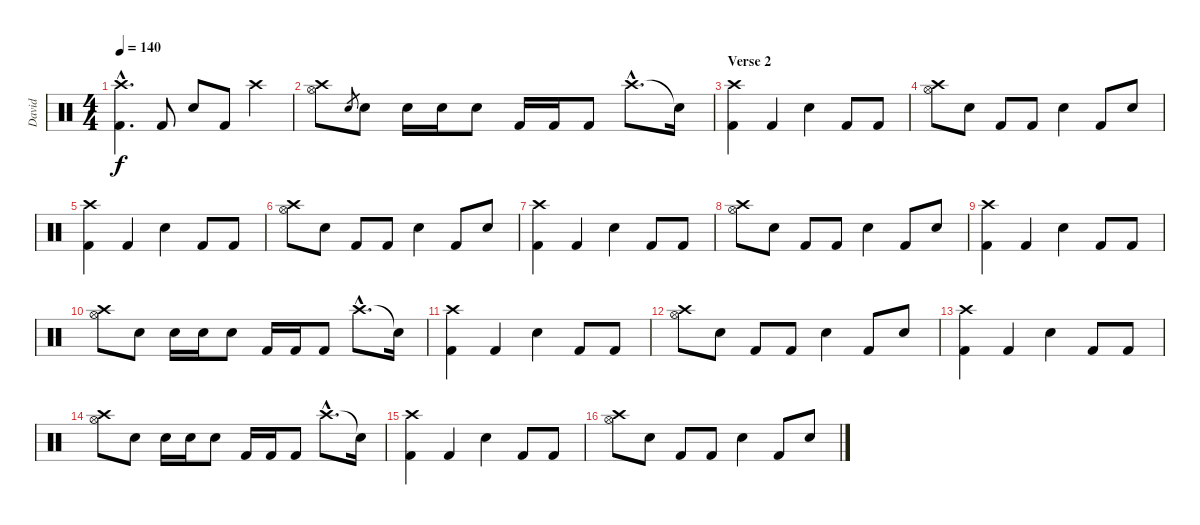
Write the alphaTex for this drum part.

\track ("David" "David") {instrument percussion}
\staff {score}
\articulation defaults
\ts (4 4)
\tempo 140
\clef neutral
\ks c
("Crash high (hit)"{hac} "Kick (hit) 2"{hac}).4{d dy f} "Kick (hit) 2".8 "Electric Snare (hit)".8 "Kick (hit) 2".8 "Crash high (hit)".4 |
("Crash high (hit)" "Hi-Hat (open)").8 "Electric Snare (hit)".8{gr} "Electric Snare (hit)".8 "Electric Snare (hit)".16 "Electric Snare (hit)".16 "Electric Snare (hit)".8 "Kick (hit) 2".16 "Kick (hit) 2".16 "Kick (hit) 2".8 "Crash high (hit)"{hac}.8{d} "Snare (hit)"{t}.16 |
\section ("" "Verse 2")
("Kick (hit) 2" "Crash high (hit)").4 "Kick (hit) 2".4 "Electric Snare (hit)".4 "Kick (hit) 2".8 "Kick (hit) 2".8 |
("Crash high (hit)" "Hi-Hat (open)").8 "Electric Snare (hit)".8 "Kick (hit) 2".8 "Kick (hit) 2".8 "Electric Snare (hit)".4 "Kick (hit) 2".8 "Snare (hit) 2".8 |
("Kick (hit) 2" "Crash high (hit)").4 "Kick (hit) 2".4 "Electric Snare (hit)".4 "Kick (hit) 2".8 "Kick (hit) 2".8 |
("Crash high (hit)" "Hi-Hat (open)").8 "Electric Snare (hit)".8 "Kick (hit) 2".8 "Kick (hit) 2".8 "Electric Snare (hit)".4 "Kick (hit) 2".8 "Snare (hit) 2".8 |
("Kick (hit) 2" "Crash high (hit)").4 "Kick (hit) 2".4 "Electric Snare (hit)".4 "Kick (hit) 2".8 "Kick (hit) 2".8 |
("Crash high (hit)" "Hi-Hat (open)").8 "Electric Snare (hit)".8 "Kick (hit) 2".8 "Kick (hit) 2".8 "Electric Snare (hit)".4 "Kick (hit) 2".8 "Snare (hit) 2".8 |
("Kick (hit) 2" "Crash high (hit)").4 "Kick (hit) 2".4 "Electric Snare (hit)".4 "Kick (hit) 2".8 "Kick (hit) 2".8 |
("Crash high (hit)" "Hi-Hat (open)").8 "Electric Snare (hit)".8 "Electric Snare (hit)".16 "Electric Snare (hit)".16 "Electric Snare (hit)".8 "Kick (hit) 2".16 "Kick (hit) 2".16 "Kick (hit) 2".8 "Crash high (hit)"{hac}.8{d} "Snare (hit)"{t}.16 |
("Kick (hit) 2" "Crash high (hit)").4 "Kick (hit) 2".4 "Electric Snare (hit)".4 "Kick (hit) 2".8 "Kick (hit) 2".8 |
("Crash high (hit)" "Hi-Hat (open)").8 "Electric Snare (hit)".8 "Kick (hit) 2".8 "Kick (hit) 2".8 "Electric Snare (hit)".4 "Kick (hit) 2".8 "Snare (hit) 2".8 |
("Kick (hit) 2" "Crash high (hit)").4 "Kick (hit) 2".4 "Electric Snare (hit)".4 "Kick (hit) 2".8 "Kick (hit) 2".8 |
("Crash high (hit)" "Hi-Hat (open)").8 "Electric Snare (hit)".8 "Electric Snare (hit)".16 "Electric Snare (hit)".16 "Electric Snare (hit)".8 "Kick (hit) 2".16 "Kick (hit) 2".16 "Kick (hit) 2".8 "Crash high (hit)"{hac}.8{d} "Snare (hit)"{t}.16 |
("Kick (hit) 2" "Crash high (hit)").4 "Kick (hit) 2".4 "Electric Snare (hit)".4 "Kick (hit) 2".8 "Kick (hit) 2".8 |
("Crash high (hit)" "Hi-Hat (open)").8 "Electric Snare (hit)".8 "Kick (hit) 2".8 "Kick (hit) 2".8 "Electric Snare (hit)".4 "Kick (hit) 2".8 "Snare (hit) 2".8
